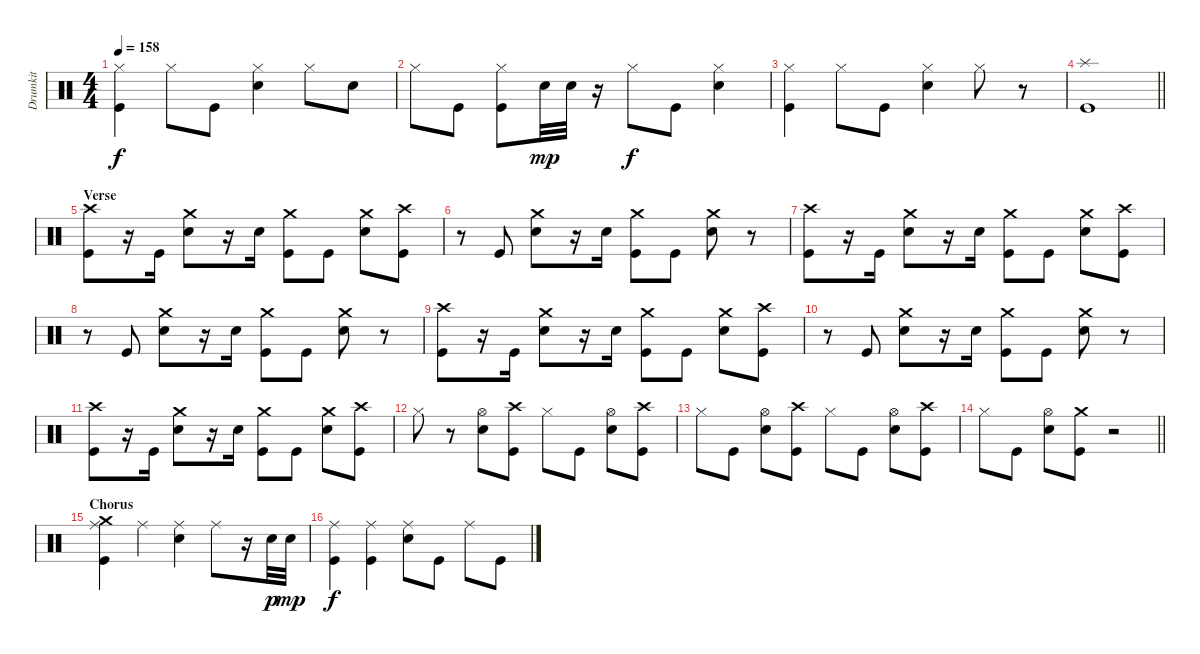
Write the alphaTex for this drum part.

\track ("Drumkit" "Drumkit") {instrument percussion}
\staff {score}
\articulation defaults
\ts (4 4)
\tempo 158
\clef neutral
\ks c
("Hi-Hat (closed)" "Kick (hit)").4{dy f} "Hi-Hat (closed)".8 "Kick (hit)".8 ("Hi-Hat (closed)" "Snare (hit) 2").4 "Hi-Hat (closed)".8 "Snare (hit) 2".8 |
"Hi-Hat (closed)".8 "Kick (hit)".8 ("Hi-Hat (closed)" "Kick (hit)").8 "Snare (hit) 2".32{dy mp} "Snare (hit) 2".32 r.16 "Hi-Hat (closed)".8{dy f} "Kick (hit)".8 ("Hi-Hat (closed)" "Snare (hit) 2").4 |
("Hi-Hat (closed)" "Kick (hit)").4 "Hi-Hat (closed)".8 "Kick (hit)".8 ("Hi-Hat (closed)" "Snare (hit) 2").4 "Hi-Hat (closed)".8 r.8 |
\barLineRight lightlight
("Splash (hit)" "Kick (hit)").1 |
\section ("" "Verse")
("Crash high (hit)" "Kick (hit)").8 r.16 "Kick (hit)".16 ("Crash medium (hit)" "Snare (hit) 2").8 r.16 "Snare (hit) 2".16 ("Crash medium (hit)" "Kick (hit)").8 "Kick (hit)".8 ("Crash medium (hit)" "Snare (hit) 2").8 ("Crash high (hit)" "Kick (hit)").8 |
r.8 "Kick (hit)".8 ("Crash medium (hit)" "Snare (hit) 2").8 r.16 "Snare (hit) 2".16 ("Crash medium (hit)" "Kick (hit)").8 "Kick (hit)".8 ("Crash medium (hit)" "Snare (hit) 2").8 r.8 |
("Crash high (hit)" "Kick (hit)").8 r.16 "Kick (hit)".16 ("Crash medium (hit)" "Snare (hit) 2").8 r.16 "Snare (hit) 2".16 ("Crash medium (hit)" "Kick (hit)").8 "Kick (hit)".8 ("Crash medium (hit)" "Snare (hit) 2").8 ("Crash high (hit)" "Kick (hit)").8 |
r.8 "Kick (hit)".8 ("Crash medium (hit)" "Snare (hit) 2").8 r.16 "Snare (hit) 2".16 ("Crash medium (hit)" "Kick (hit)").8 "Kick (hit)".8 ("Crash medium (hit)" "Snare (hit) 2").8 r.8 |
("Crash high (hit)" "Kick (hit)").8 r.16 "Kick (hit)".16 ("Crash medium (hit)" "Snare (hit) 2").8 r.16 "Snare (hit) 2".16 ("Crash medium (hit)" "Kick (hit)").8 "Kick (hit)".8 ("Crash medium (hit)" "Snare (hit) 2").8 ("Crash high (hit)" "Kick (hit)").8 |
r.8 "Kick (hit)".8 ("Crash medium (hit)" "Snare (hit) 2").8 r.16 "Snare (hit) 2".16 ("Crash medium (hit)" "Kick (hit)").8 "Kick (hit)".8 ("Crash medium (hit)" "Snare (hit) 2").8 r.8 |
("Crash high (hit)" "Kick (hit)").8 r.16 "Kick (hit)".16 ("Crash medium (hit)" "Snare (hit) 2").8 r.16 "Snare (hit) 2".16 ("Crash medium (hit)" "Kick (hit)").8 "Kick (hit)".8 ("Crash medium (hit)" "Snare (hit) 2").8 ("Crash high (hit)" "Kick (hit)").8 |
"Hi-Hat (closed)".8 r.8 ("Hi-Hat (open)" "Snare (hit) 2").8 ("Crash high (hit)" "Kick (hit)").8 "Hi-Hat (closed)".8 "Kick (hit)".8 ("Hi-Hat (open)" "Snare (hit) 2").8 ("Crash high (hit)" "Kick (hit)").8 |
"Hi-Hat (closed)".8 "Kick (hit)".8 ("Hi-Hat (open)" "Snare (hit) 2").8 ("Crash high (hit)" "Kick (hit)").8 "Hi-Hat (closed)".8 "Kick (hit)".8 ("Hi-Hat (open)" "Snare (hit) 2").8 ("Crash high (hit)" "Kick (hit)").8 |
\barLineRight lightlight "Hi-Hat (closed)".8 "Kick (hit)".8
("Hi-Hat (open)" "Snare (hit) 2").8 ("Crash medium (hit)" "Kick (hit)").8 r.2 |
\section ("" "Chorus")
("Crash medium (hit)" "Ride (middle)" "Kick (hit)").4 "Ride (middle)".4 ("Ride (middle)" "Snare (hit) 2").4 "Ride (middle)".8 r.16 "Snare (hit) 2".32{dy p} "Snare (hit) 2".32{dy mp} |
("Ride (middle)" "Kick (hit)").4{dy f} ("Ride (middle)" "Kick (hit)").4 ("Ride (middle)" "Snare (hit) 2").8 "Kick (hit)".8 "Ride (middle)".8 "Kick (hit)".8
